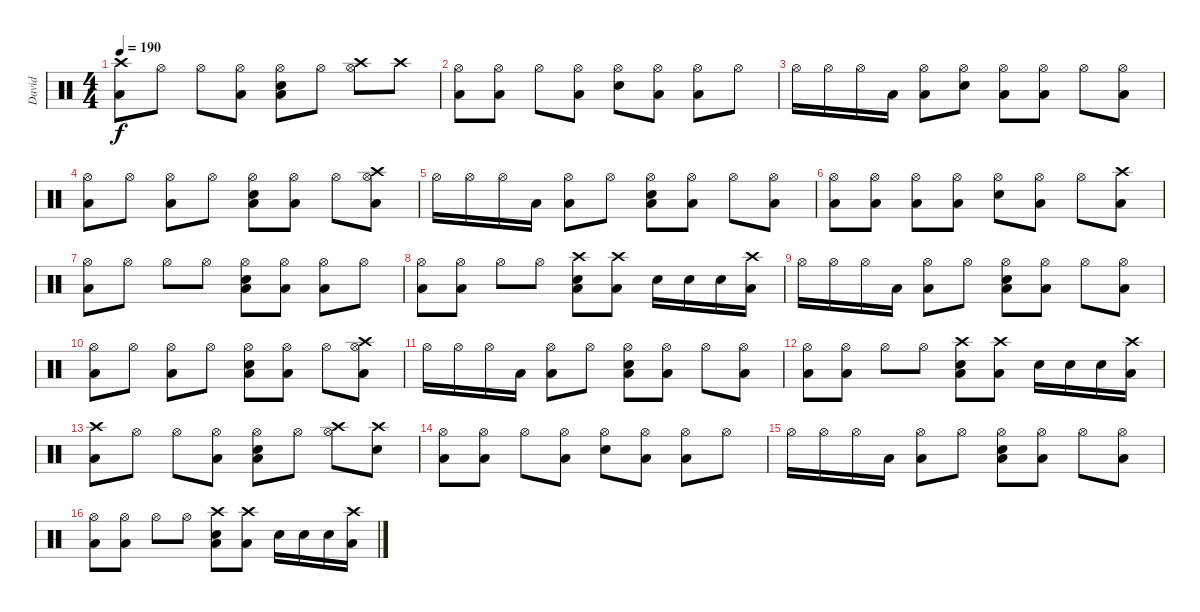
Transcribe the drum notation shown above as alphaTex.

\track ("David" "David") {instrument percussion}
\staff {score}
\articulation defaults
\ts (4 4)
\tempo 190
\clef neutral
\ks c
("Crash high (hit)" "Low Tom (hit)").8{dy f} "Hi-Hat (open)".8 "Hi-Hat (open)".8 ("Hi-Hat (open)" "Low Tom (hit)").8 ("Hi-Hat (open)" "Electric Snare (hit)" "Low Tom (hit)").8 "Hi-Hat (open)".8 ("Crash high (hit)" "Hi-Hat (open)").8 "Crash high (hit)".8 |
("Hi-Hat (open)" "Low Tom (hit)").8 ("Hi-Hat (open)" "Low Tom (hit)").8 "Hi-Hat (open)".8 ("Hi-Hat (open)" "Low Tom (hit)").8 ("Hi-Hat (open)" "Electric Snare (hit)").8 ("Hi-Hat (open)" "Low Tom (hit)").8 ("Hi-Hat (open)" "Low Tom (hit)").8 "Hi-Hat (open)".8 |
"Hi-Hat (open)".16 "Hi-Hat (open)".16 "Hi-Hat (open)".16 "Low Tom (hit)".16 ("Hi-Hat (open)" "Low Tom (hit)").8 ("Hi-Hat (open)" "Electric Snare (hit)").8 ("Hi-Hat (open)" "Low Tom (hit)").8 ("Hi-Hat (open)" "Low Tom (hit)").8 "Hi-Hat (open)".8 ("Hi-Hat (open)" "Low Tom (hit)").8 |
("Hi-Hat (open)" "Low Tom (hit)").8 "Hi-Hat (open)".8 ("Hi-Hat (open)" "Low Tom (hit)").8 "Hi-Hat (open)".8 ("Hi-Hat (open)" "Electric Snare (hit)" "Low Tom (hit)").8 ("Hi-Hat (open)" "Low Tom (hit)").8 "Hi-Hat (open)".8 ("Crash high (hit)" "Hi-Hat (open)" "Low Tom (hit)").8 |
"Hi-Hat (open)".16 "Hi-Hat (open)".16 "Hi-Hat (open)".16 "Low Tom (hit)".16 ("Hi-Hat (open)" "Low Tom (hit)").8 "Hi-Hat (open)".8 ("Hi-Hat (open)" "Electric Snare (hit)" "Low Tom (hit)").8 ("Hi-Hat (open)" "Low Tom (hit)").8 "Hi-Hat (open)".8 ("Hi-Hat (open)" "Low Tom (hit)").8 |
("Hi-Hat (open)" "Low Tom (hit)").8 ("Hi-Hat (open)" "Low Tom (hit)").8 ("Hi-Hat (open)" "Low Tom (hit)").8 ("Hi-Hat (open)" "Low Tom (hit)").8 ("Hi-Hat (open)" "Electric Snare (hit)").8 ("Hi-Hat (open)" "Low Tom (hit)").8 "Hi-Hat (open)".8 ("Crash high (hit)" "Low Tom (hit)").8 |
("Hi-Hat (open)" "Low Tom (hit)").8 "Hi-Hat (open)".8 "Hi-Hat (open)".8 "Hi-Hat (open)".8 ("Hi-Hat (open)" "Electric Snare (hit)" "Low Tom (hit)").8 ("Hi-Hat (open)" "Low Tom (hit)").8 ("Hi-Hat (open)" "Low Tom (hit)").8 "Hi-Hat (open)".8 |
("Hi-Hat (open)" "Low Tom (hit)").8 ("Hi-Hat (open)" "Low Tom (hit)").8 "Hi-Hat (open)".8 "Hi-Hat (open)".8 ("Crash high (hit)" "Electric Snare (hit)" "Low Tom (hit)").8 ("Crash high (hit)" "Low Tom (hit)").8 "Electric Snare (hit)".16 "Electric Snare (hit)".16 "Electric Snare (hit)".16 ("Crash high (hit)" "Low Tom (hit)").16 |
"Hi-Hat (open)".16 "Hi-Hat (open)".16 "Hi-Hat (open)".16 "Low Tom (hit)".16 ("Hi-Hat (open)" "Low Tom (hit)").8 "Hi-Hat (open)".8 ("Hi-Hat (open)" "Electric Snare (hit)" "Low Tom (hit)").8 ("Hi-Hat (open)" "Low Tom (hit)").8 "Hi-Hat (open)".8 ("Hi-Hat (open)" "Low Tom (hit)").8 |
("Hi-Hat (open)" "Low Tom (hit)").8 "Hi-Hat (open)".8 ("Hi-Hat (open)" "Low Tom (hit)").8 "Hi-Hat (open)".8 ("Hi-Hat (open)" "Electric Snare (hit)" "Low Tom (hit)").8 ("Hi-Hat (open)" "Low Tom (hit)").8 "Hi-Hat (open)".8 ("Crash high (hit)" "Hi-Hat (open)" "Low Tom (hit)").8 |
"Hi-Hat (open)".16 "Hi-Hat (open)".16 "Hi-Hat (open)".16 "Low Tom (hit)".16 ("Hi-Hat (open)" "Low Tom (hit)").8 "Hi-Hat (open)".8 ("Hi-Hat (open)" "Electric Snare (hit)" "Low Tom (hit)").8 ("Hi-Hat (open)" "Low Tom (hit)").8 "Hi-Hat (open)".8 ("Hi-Hat (open)" "Low Tom (hit)").8 |
("Hi-Hat (open)" "Low Tom (hit)").8 ("Hi-Hat (open)" "Low Tom (hit)").8 "Hi-Hat (open)".8 "Hi-Hat (open)".8 ("Crash high (hit)" "Electric Snare (hit)" "Low Tom (hit)").8 ("Crash high (hit)" "Low Tom (hit)").8 "Electric Snare (hit)".16 "Electric Snare (hit)".16 "Electric Snare (hit)".16 ("Crash high (hit)" "Low Tom (hit)").16 |
("Crash high (hit)" "Low Tom (hit)").8 "Hi-Hat (open)".8 "Hi-Hat (open)".8 ("Hi-Hat (open)" "Low Tom (hit)").8 ("Hi-Hat (open)" "Electric Snare (hit)" "Low Tom (hit)").8 "Hi-Hat (open)".8 ("Crash high (hit)" "Hi-Hat (open)").8 ("Crash high (hit)" "Electric Snare (hit)").8 |
("Hi-Hat (open)" "Low Tom (hit)").8 ("Hi-Hat (open)" "Low Tom (hit)").8 "Hi-Hat (open)".8 ("Hi-Hat (open)" "Low Tom (hit)").8 ("Hi-Hat (open)" "Electric Snare (hit)").8 ("Hi-Hat (open)" "Low Tom (hit)").8 ("Hi-Hat (open)" "Low Tom (hit)").8 "Hi-Hat (open)".8 |
"Hi-Hat (open)".16 "Hi-Hat (open)".16 "Hi-Hat (open)".16 "Low Tom (hit)".16 ("Hi-Hat (open)" "Low Tom (hit)").8 "Hi-Hat (open)".8 ("Hi-Hat (open)" "Electric Snare (hit)" "Low Tom (hit)").8 ("Hi-Hat (open)" "Low Tom (hit)").8 "Hi-Hat (open)".8 ("Hi-Hat (open)" "Low Tom (hit)").8 |
("Hi-Hat (open)" "Low Tom (hit)").8 ("Hi-Hat (open)" "Low Tom (hit)").8 "Hi-Hat (open)".8 "Hi-Hat (open)".8 ("Crash high (hit)" "Electric Snare (hit)" "Low Tom (hit)").8 ("Crash high (hit)" "Low Tom (hit)").8 "Electric Snare (hit)".16 "Electric Snare (hit)".16 "Electric Snare (hit)".16 ("Crash high (hit)" "Low Tom (hit)").16
